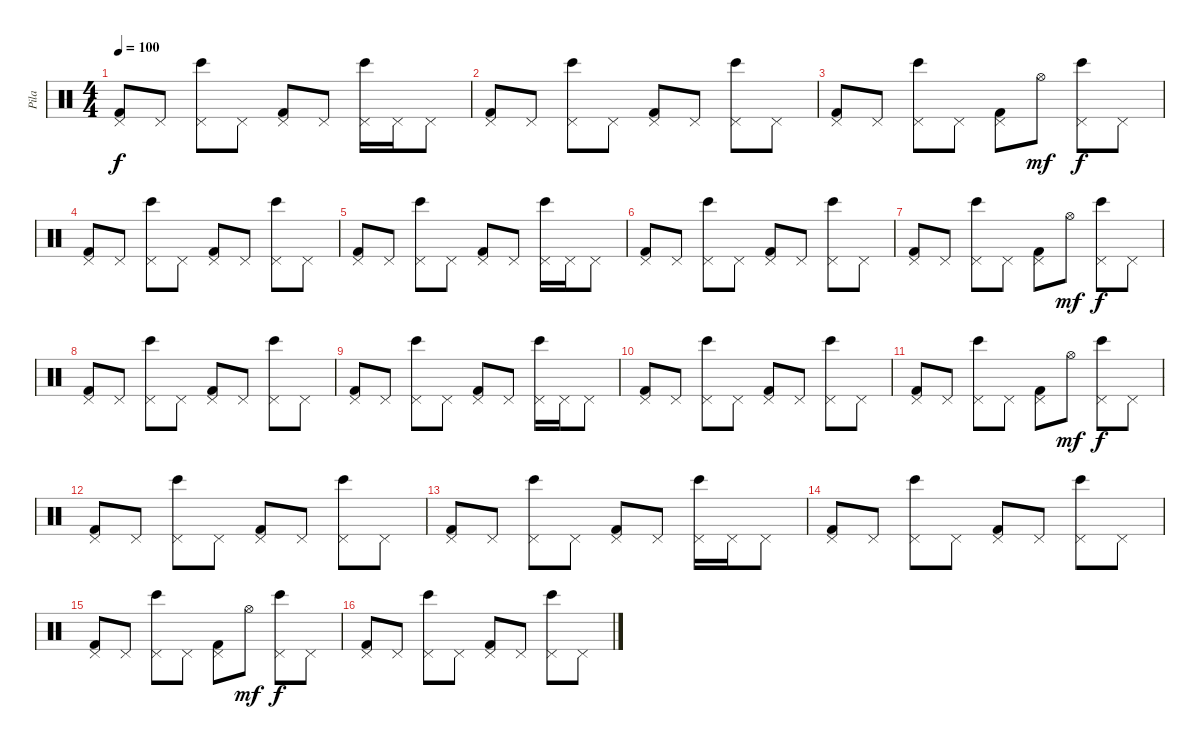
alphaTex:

\track ("Pila" "Pila") {instrument percussion}
\staff {score}
\articulation defaults
\ts (4 4)
\tempo 100
\clef neutral
\ks c
("Pedal Hi-Hat (hit)" "Kick (hit) 2").8{dy f} "Pedal Hi-Hat (hit)".8 ("Pedal Hi-Hat (hit)" "Bongo High (hit)").8 "Pedal Hi-Hat (hit)".8 ("Pedal Hi-Hat (hit)" "Kick (hit) 2").8 "Pedal Hi-Hat (hit)".8 ("Pedal Hi-Hat (hit)" "Bongo High (hit)").16 "Pedal Hi-Hat (hit)".16 "Pedal Hi-Hat (hit)".8 |
("Pedal Hi-Hat (hit)" "Kick (hit) 2").8 "Pedal Hi-Hat (hit)".8 ("Pedal Hi-Hat (hit)" "Bongo High (hit)").8 "Pedal Hi-Hat (hit)".8 ("Pedal Hi-Hat (hit)" "Kick (hit) 2").8 "Pedal Hi-Hat (hit)".8 ("Pedal Hi-Hat (hit)" "Bongo High (hit)").8 "Pedal Hi-Hat (hit)".8 |
("Pedal Hi-Hat (hit)" "Kick (hit) 2").8 "Pedal Hi-Hat (hit)".8 ("Pedal Hi-Hat (hit)" "Bongo High (hit)").8 "Pedal Hi-Hat (hit)".8 ("Pedal Hi-Hat (hit)" "Kick (hit) 2").8 "Hi-Hat (open)".8{dy mf} ("Pedal Hi-Hat (hit)" "Bongo High (hit)").8{dy f} "Pedal Hi-Hat (hit)".8 |
("Pedal Hi-Hat (hit)" "Kick (hit) 2").8 "Pedal Hi-Hat (hit)".8 ("Pedal Hi-Hat (hit)" "Bongo High (hit)").8 "Pedal Hi-Hat (hit)".8 ("Pedal Hi-Hat (hit)" "Kick (hit) 2").8 "Pedal Hi-Hat (hit)".8 ("Pedal Hi-Hat (hit)" "Bongo High (hit)").8 "Pedal Hi-Hat (hit)".8 |
("Pedal Hi-Hat (hit)" "Kick (hit) 2").8 "Pedal Hi-Hat (hit)".8 ("Pedal Hi-Hat (hit)" "Bongo High (hit)").8 "Pedal Hi-Hat (hit)".8 ("Pedal Hi-Hat (hit)" "Kick (hit) 2").8 "Pedal Hi-Hat (hit)".8 ("Pedal Hi-Hat (hit)" "Bongo High (hit)").16 "Pedal Hi-Hat (hit)".16 "Pedal Hi-Hat (hit)".8 |
("Pedal Hi-Hat (hit)" "Kick (hit) 2").8 "Pedal Hi-Hat (hit)".8 ("Pedal Hi-Hat (hit)" "Bongo High (hit)").8 "Pedal Hi-Hat (hit)".8 ("Pedal Hi-Hat (hit)" "Kick (hit) 2").8 "Pedal Hi-Hat (hit)".8 ("Pedal Hi-Hat (hit)" "Bongo High (hit)").8 "Pedal Hi-Hat (hit)".8 |
("Pedal Hi-Hat (hit)" "Kick (hit) 2").8 "Pedal Hi-Hat (hit)".8 ("Pedal Hi-Hat (hit)" "Bongo High (hit)").8 "Pedal Hi-Hat (hit)".8 ("Pedal Hi-Hat (hit)" "Kick (hit) 2").8 "Hi-Hat (open)".8{dy mf} ("Pedal Hi-Hat (hit)" "Bongo High (hit)").8{dy f} "Pedal Hi-Hat (hit)".8 |
("Pedal Hi-Hat (hit)" "Kick (hit) 2").8 "Pedal Hi-Hat (hit)".8 ("Pedal Hi-Hat (hit)" "Bongo High (hit)").8 "Pedal Hi-Hat (hit)".8 ("Pedal Hi-Hat (hit)" "Kick (hit) 2").8 "Pedal Hi-Hat (hit)".8 ("Pedal Hi-Hat (hit)" "Bongo High (hit)").8 "Pedal Hi-Hat (hit)".8 |
("Pedal Hi-Hat (hit)" "Kick (hit) 2").8 "Pedal Hi-Hat (hit)".8 ("Pedal Hi-Hat (hit)" "Bongo High (hit)").8 "Pedal Hi-Hat (hit)".8 ("Pedal Hi-Hat (hit)" "Kick (hit) 2").8 "Pedal Hi-Hat (hit)".8 ("Pedal Hi-Hat (hit)" "Bongo High (hit)").16 "Pedal Hi-Hat (hit)".16 "Pedal Hi-Hat (hit)".8 |
("Pedal Hi-Hat (hit)" "Kick (hit) 2").8 "Pedal Hi-Hat (hit)".8 ("Pedal Hi-Hat (hit)" "Bongo High (hit)").8 "Pedal Hi-Hat (hit)".8 ("Pedal Hi-Hat (hit)" "Kick (hit) 2").8 "Pedal Hi-Hat (hit)".8 ("Pedal Hi-Hat (hit)" "Bongo High (hit)").8 "Pedal Hi-Hat (hit)".8 |
("Pedal Hi-Hat (hit)" "Kick (hit) 2").8 "Pedal Hi-Hat (hit)".8 ("Pedal Hi-Hat (hit)" "Bongo High (hit)").8 "Pedal Hi-Hat (hit)".8 ("Pedal Hi-Hat (hit)" "Kick (hit) 2").8 "Hi-Hat (open)".8{dy mf} ("Pedal Hi-Hat (hit)" "Bongo High (hit)").8{dy f} "Pedal Hi-Hat (hit)".8 |
("Pedal Hi-Hat (hit)" "Kick (hit) 2").8 "Pedal Hi-Hat (hit)".8 ("Pedal Hi-Hat (hit)" "Bongo High (hit)").8 "Pedal Hi-Hat (hit)".8 ("Pedal Hi-Hat (hit)" "Kick (hit) 2").8 "Pedal Hi-Hat (hit)".8 ("Pedal Hi-Hat (hit)" "Bongo High (hit)").8 "Pedal Hi-Hat (hit)".8 |
("Pedal Hi-Hat (hit)" "Kick (hit) 2").8 "Pedal Hi-Hat (hit)".8 ("Pedal Hi-Hat (hit)" "Bongo High (hit)").8 "Pedal Hi-Hat (hit)".8 ("Pedal Hi-Hat (hit)" "Kick (hit) 2").8 "Pedal Hi-Hat (hit)".8 ("Pedal Hi-Hat (hit)" "Bongo High (hit)").16 "Pedal Hi-Hat (hit)".16 "Pedal Hi-Hat (hit)".8 |
("Pedal Hi-Hat (hit)" "Kick (hit) 2").8 "Pedal Hi-Hat (hit)".8 ("Pedal Hi-Hat (hit)" "Bongo High (hit)").8 "Pedal Hi-Hat (hit)".8 ("Pedal Hi-Hat (hit)" "Kick (hit) 2").8 "Pedal Hi-Hat (hit)".8 ("Pedal Hi-Hat (hit)" "Bongo High (hit)").8 "Pedal Hi-Hat (hit)".8 |
("Pedal Hi-Hat (hit)" "Kick (hit) 2").8 "Pedal Hi-Hat (hit)".8 ("Pedal Hi-Hat (hit)" "Bongo High (hit)").8 "Pedal Hi-Hat (hit)".8 ("Pedal Hi-Hat (hit)" "Kick (hit) 2").8 "Hi-Hat (open)".8{dy mf} ("Pedal Hi-Hat (hit)" "Bongo High (hit)").8{dy f} "Pedal Hi-Hat (hit)".8 |
("Pedal Hi-Hat (hit)" "Kick (hit) 2").8 "Pedal Hi-Hat (hit)".8 ("Pedal Hi-Hat (hit)" "Bongo High (hit)").8 "Pedal Hi-Hat (hit)".8 ("Pedal Hi-Hat (hit)" "Kick (hit) 2").8 "Pedal Hi-Hat (hit)".8 ("Pedal Hi-Hat (hit)" "Bongo High (hit)").8 "Pedal Hi-Hat (hit)".8
